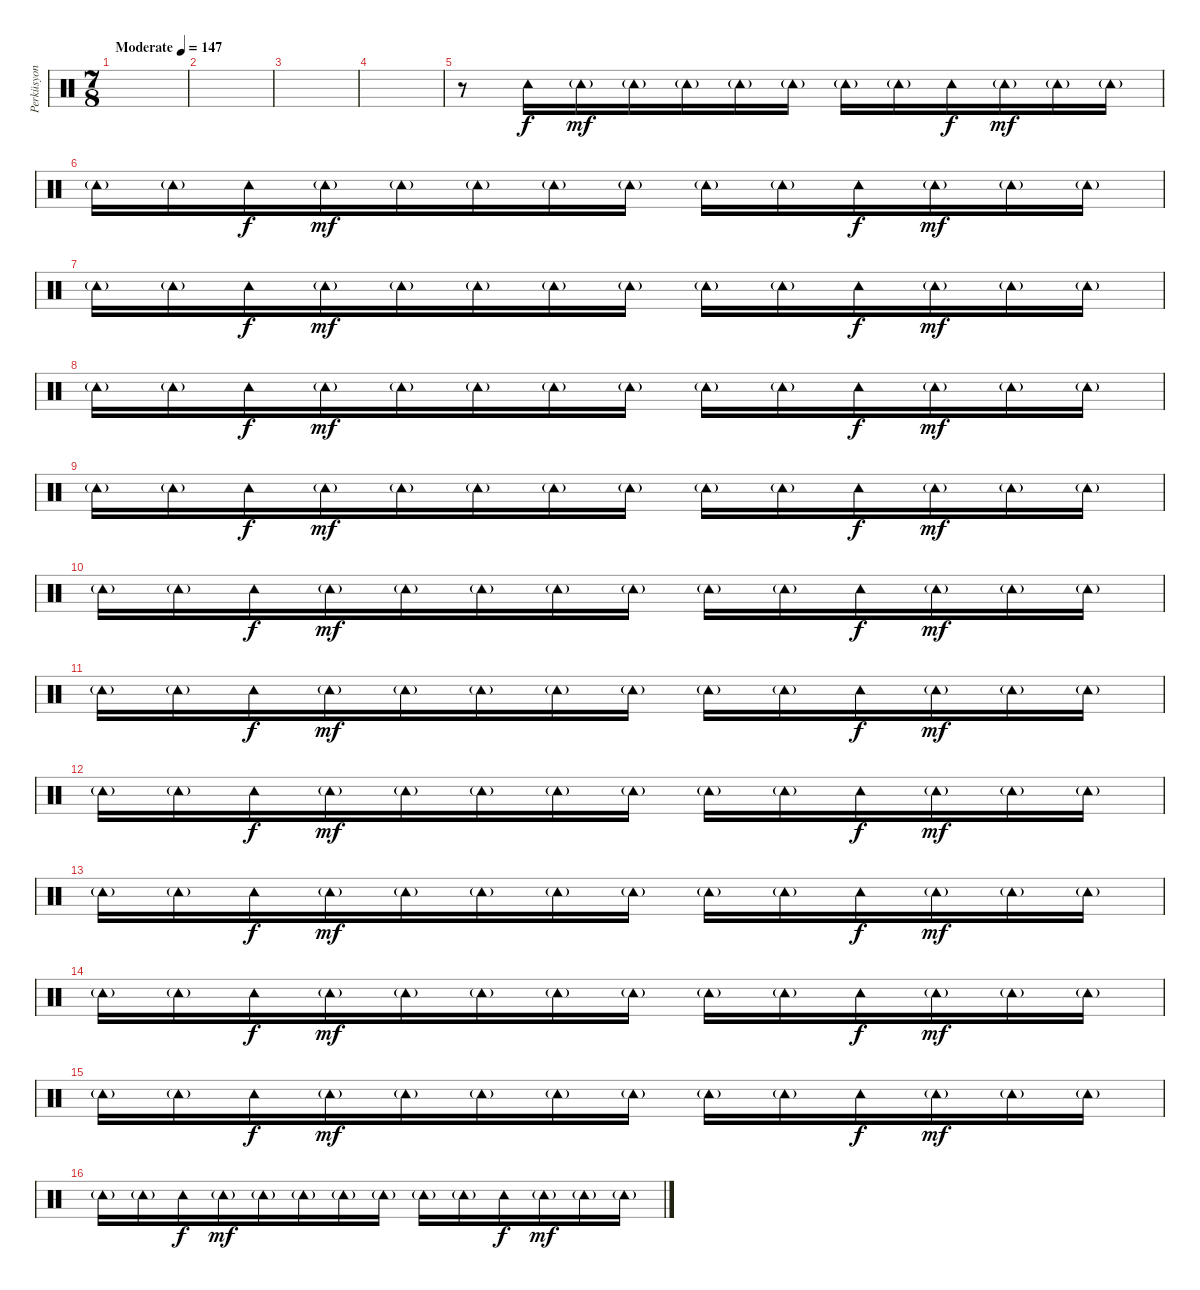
\track ("Perküsyon" "Perküsyon") {instrument percussion}
\staff {score}
\articulation defaults
\ts (7 8)
\tempo (147 "Moderate")
\clef neutral
\ks c
|
|
|
|
r.8 "Tambourine (hit)".16 "Tambourine (hit)"{g}.16{dy mf} "Tambourine (hit)"{g}.16 "Tambourine (hit)"{g}.16 "Tambourine (hit)"{g}.16 "Tambourine (hit)"{g}.16 "Tambourine (hit)"{g}.16 "Tambourine (hit)"{g}.16 "Tambourine (hit)".16{dy f} "Tambourine (hit)"{g}.16{dy mf} "Tambourine (hit)"{g}.16 "Tambourine (hit)"{g}.16 |
"Tambourine (hit)"{g}.16 "Tambourine (hit)"{g}.16 "Tambourine (hit)".16{dy f} "Tambourine (hit)"{g}.16{dy mf} "Tambourine (hit)"{g}.16 "Tambourine (hit)"{g}.16 "Tambourine (hit)"{g}.16 "Tambourine (hit)"{g}.16 "Tambourine (hit)"{g}.16 "Tambourine (hit)"{g}.16 "Tambourine (hit)".16{dy f} "Tambourine (hit)"{g}.16{dy mf} "Tambourine (hit)"{g}.16 "Tambourine (hit)"{g}.16 |
"Tambourine (hit)"{g}.16 "Tambourine (hit)"{g}.16 "Tambourine (hit)".16{dy f} "Tambourine (hit)"{g}.16{dy mf} "Tambourine (hit)"{g}.16 "Tambourine (hit)"{g}.16 "Tambourine (hit)"{g}.16 "Tambourine (hit)"{g}.16 "Tambourine (hit)"{g}.16 "Tambourine (hit)"{g}.16 "Tambourine (hit)".16{dy f} "Tambourine (hit)"{g}.16{dy mf} "Tambourine (hit)"{g}.16 "Tambourine (hit)"{g}.16 |
"Tambourine (hit)"{g}.16 "Tambourine (hit)"{g}.16 "Tambourine (hit)".16{dy f} "Tambourine (hit)"{g}.16{dy mf} "Tambourine (hit)"{g}.16 "Tambourine (hit)"{g}.16 "Tambourine (hit)"{g}.16 "Tambourine (hit)"{g}.16 "Tambourine (hit)"{g}.16 "Tambourine (hit)"{g}.16 "Tambourine (hit)".16{dy f} "Tambourine (hit)"{g}.16{dy mf} "Tambourine (hit)"{g}.16 "Tambourine (hit)"{g}.16 |
"Tambourine (hit)"{g}.16 "Tambourine (hit)"{g}.16 "Tambourine (hit)".16{dy f} "Tambourine (hit)"{g}.16{dy mf} "Tambourine (hit)"{g}.16 "Tambourine (hit)"{g}.16 "Tambourine (hit)"{g}.16 "Tambourine (hit)"{g}.16 "Tambourine (hit)"{g}.16 "Tambourine (hit)"{g}.16 "Tambourine (hit)".16{dy f} "Tambourine (hit)"{g}.16{dy mf} "Tambourine (hit)"{g}.16 "Tambourine (hit)"{g}.16 |
"Tambourine (hit)"{g}.16 "Tambourine (hit)"{g}.16 "Tambourine (hit)".16{dy f} "Tambourine (hit)"{g}.16{dy mf} "Tambourine (hit)"{g}.16 "Tambourine (hit)"{g}.16 "Tambourine (hit)"{g}.16 "Tambourine (hit)"{g}.16 "Tambourine (hit)"{g}.16 "Tambourine (hit)"{g}.16 "Tambourine (hit)".16{dy f} "Tambourine (hit)"{g}.16{dy mf} "Tambourine (hit)"{g}.16 "Tambourine (hit)"{g}.16 |
"Tambourine (hit)"{g}.16 "Tambourine (hit)"{g}.16 "Tambourine (hit)".16{dy f} "Tambourine (hit)"{g}.16{dy mf} "Tambourine (hit)"{g}.16 "Tambourine (hit)"{g}.16 "Tambourine (hit)"{g}.16 "Tambourine (hit)"{g}.16 "Tambourine (hit)"{g}.16 "Tambourine (hit)"{g}.16 "Tambourine (hit)".16{dy f} "Tambourine (hit)"{g}.16{dy mf} "Tambourine (hit)"{g}.16 "Tambourine (hit)"{g}.16 |
"Tambourine (hit)"{g}.16 "Tambourine (hit)"{g}.16 "Tambourine (hit)".16{dy f} "Tambourine (hit)"{g}.16{dy mf} "Tambourine (hit)"{g}.16 "Tambourine (hit)"{g}.16 "Tambourine (hit)"{g}.16 "Tambourine (hit)"{g}.16 "Tambourine (hit)"{g}.16 "Tambourine (hit)"{g}.16 "Tambourine (hit)".16{dy f} "Tambourine (hit)"{g}.16{dy mf} "Tambourine (hit)"{g}.16 "Tambourine (hit)"{g}.16 |
"Tambourine (hit)"{g}.16 "Tambourine (hit)"{g}.16 "Tambourine (hit)".16{dy f} "Tambourine (hit)"{g}.16{dy mf} "Tambourine (hit)"{g}.16 "Tambourine (hit)"{g}.16 "Tambourine (hit)"{g}.16 "Tambourine (hit)"{g}.16 "Tambourine (hit)"{g}.16 "Tambourine (hit)"{g}.16 "Tambourine (hit)".16{dy f} "Tambourine (hit)"{g}.16{dy mf} "Tambourine (hit)"{g}.16 "Tambourine (hit)"{g}.16 |
"Tambourine (hit)"{g}.16 "Tambourine (hit)"{g}.16 "Tambourine (hit)".16{dy f} "Tambourine (hit)"{g}.16{dy mf} "Tambourine (hit)"{g}.16 "Tambourine (hit)"{g}.16 "Tambourine (hit)"{g}.16 "Tambourine (hit)"{g}.16 "Tambourine (hit)"{g}.16 "Tambourine (hit)"{g}.16 "Tambourine (hit)".16{dy f} "Tambourine (hit)"{g}.16{dy mf} "Tambourine (hit)"{g}.16 "Tambourine (hit)"{g}.16 |
"Tambourine (hit)"{g}.16 "Tambourine (hit)"{g}.16 "Tambourine (hit)".16{dy f} "Tambourine (hit)"{g}.16{dy mf} "Tambourine (hit)"{g}.16 "Tambourine (hit)"{g}.16 "Tambourine (hit)"{g}.16 "Tambourine (hit)"{g}.16 "Tambourine (hit)"{g}.16 "Tambourine (hit)"{g}.16 "Tambourine (hit)".16{dy f} "Tambourine (hit)"{g}.16{dy mf} "Tambourine (hit)"{g}.16 "Tambourine (hit)"{g}.16 |
"Tambourine (hit)"{g}.16 "Tambourine (hit)"{g}.16 "Tambourine (hit)".16{dy f} "Tambourine (hit)"{g}.16{dy mf} "Tambourine (hit)"{g}.16 "Tambourine (hit)"{g}.16 "Tambourine (hit)"{g}.16 "Tambourine (hit)"{g}.16 "Tambourine (hit)"{g}.16 "Tambourine (hit)"{g}.16 "Tambourine (hit)".16{dy f} "Tambourine (hit)"{g}.16{dy mf} "Tambourine (hit)"{g}.16 "Tambourine (hit)"{g}.16
